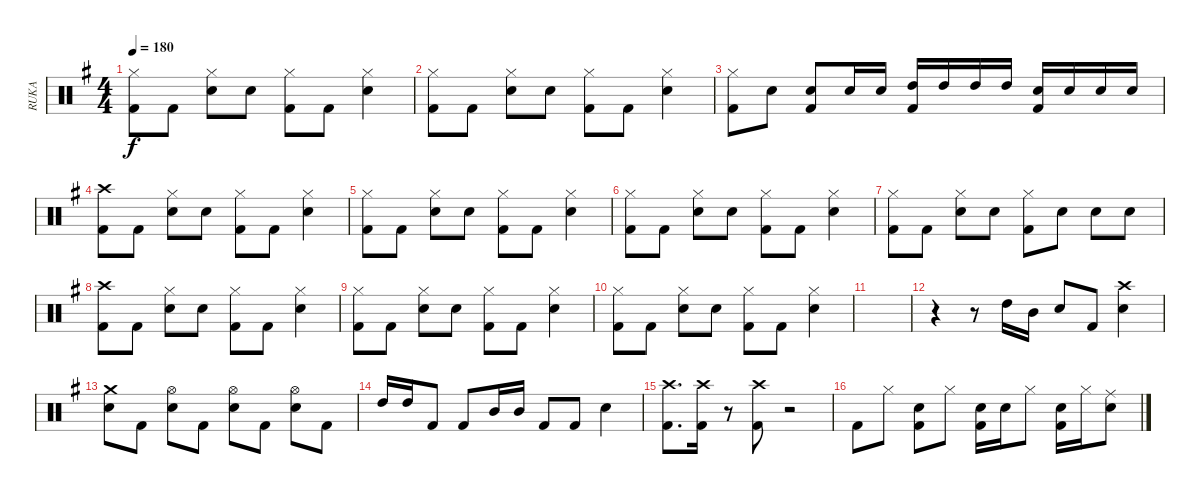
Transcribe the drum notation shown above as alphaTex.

\track ("RUKA" "RUKA") {instrument percussion}
\staff {score}
\articulation defaults
\ts (4 4)
\tempo 180
\clef neutral
\ks g
("Hi-Hat (closed)" "Kick (hit) 2").8{dy f} "Kick (hit) 2".8 ("Hi-Hat (closed)" "Snare (hit) 2").8 "Snare (hit) 2".8 ("Hi-Hat (closed)" "Kick (hit) 2").8 "Kick (hit) 2".8 ("Hi-Hat (closed)" "Snare (hit) 2").4 |
("Hi-Hat (closed)" "Kick (hit) 2").8 "Kick (hit) 2".8 ("Hi-Hat (closed)" "Snare (hit) 2").8 "Snare (hit) 2".8 ("Hi-Hat (closed)" "Kick (hit) 2").8 "Kick (hit) 2".8 ("Hi-Hat (closed)" "Snare (hit) 2").4 |
("Hi-Hat (closed)" "Kick (hit) 2").8 "Snare (hit) 2".8 ("Snare (hit) 2" "Kick (hit) 2").8 "Snare (hit) 2".16 "Snare (hit) 2".16 ("High Tom (hit)" "Kick (hit) 2").16 "High Tom (hit)".16 "High Tom (hit)".16 "High Tom (hit)".16 ("Snare (hit) 2" "Kick (hit) 2").16 "Snare (hit) 2".16 "Snare (hit) 2".16 "Snare (hit) 2".16 |
("Crash high (hit)" "Kick (hit) 2").8 "Kick (hit) 2".8 ("Hi-Hat (closed)" "Snare (hit) 2").8 "Snare (hit) 2".8 ("Hi-Hat (closed)" "Kick (hit) 2").8 "Kick (hit) 2".8 ("Hi-Hat (closed)" "Snare (hit) 2").4 |
("Hi-Hat (closed)" "Kick (hit) 2").8 "Kick (hit) 2".8 ("Hi-Hat (closed)" "Snare (hit) 2").8 "Snare (hit) 2".8 ("Hi-Hat (closed)" "Kick (hit) 2").8 "Kick (hit) 2".8 ("Hi-Hat (closed)" "Snare (hit) 2").4 |
("Hi-Hat (closed)" "Kick (hit) 2").8 "Kick (hit) 2".8 ("Hi-Hat (closed)" "Snare (hit) 2").8 "Snare (hit) 2".8 ("Hi-Hat (closed)" "Kick (hit) 2").8 "Kick (hit) 2".8 ("Hi-Hat (closed)" "Snare (hit) 2").4 |
("Hi-Hat (closed)" "Kick (hit) 2").8 "Kick (hit) 2".8 ("Hi-Hat (closed)" "Snare (hit) 2").8 "Snare (hit) 2".8 ("Hi-Hat (closed)" "Kick (hit) 2").8 "Snare (hit) 2".8 "Snare (hit) 2".8 "Snare (hit) 2".8 |
("Crash high (hit)" "Kick (hit) 2").8 "Kick (hit) 2".8 ("Hi-Hat (closed)" "Snare (hit) 2").8 "Snare (hit) 2".8 ("Hi-Hat (closed)" "Kick (hit) 2").8 "Kick (hit) 2".8 ("Hi-Hat (closed)" "Snare (hit) 2").4 |
("Hi-Hat (closed)" "Kick (hit) 2").8 "Kick (hit) 2".8 ("Hi-Hat (closed)" "Snare (hit) 2").8 "Snare (hit) 2".8 ("Hi-Hat (closed)" "Kick (hit) 2").8 "Kick (hit) 2".8 ("Hi-Hat (closed)" "Snare (hit) 2").4 |
("Hi-Hat (closed)" "Kick (hit) 2").8 "Kick (hit) 2".8 ("Hi-Hat (closed)" "Snare (hit) 2").8 "Snare (hit) 2".8 ("Hi-Hat (closed)" "Kick (hit) 2").8 "Kick (hit) 2".8 ("Hi-Hat (closed)" "Snare (hit) 2").4 |
|
r.4 r.8 "High Tom (hit)".16 "Mid Tom (hit)".16 "Snare (hit) 2".8 "Kick (hit) 2".8 ("Crash high (hit)" "Snare (hit) 2").4 |
("Crash medium (hit)" "Snare (hit) 2").8 "Kick (hit) 2".8 ("Hi-Hat (open)" "Snare (hit) 2").8 "Kick (hit) 2".8 ("Hi-Hat (open)" "Snare (hit) 2").8 "Kick (hit) 2".8 ("Hi-Hat (open)" "Snare (hit) 2").8 "Kick (hit) 2".8 |
"High Tom (hit)".16 "High Tom (hit)".16 "Kick (hit) 2".8 "Kick (hit) 2".8 "Mid Tom (hit)".16 "Mid Tom (hit)".16 "Kick (hit) 2".8 "Kick (hit) 2".8 "Snare (hit) 2".4 |
("Crash high (hit)" "Kick (hit) 2").8{d} ("Crash high (hit)" "Kick (hit) 2").16 r.8 ("Crash high (hit)" "Kick (hit) 2").8 r.2 |
"Kick (hit) 2".8 "Hi-Hat (closed)".8 ("Snare (hit) 2" "Kick (hit) 2").8 "Hi-Hat (closed)".8 ("Snare (hit) 2" "Kick (hit) 2").16 "Snare (hit) 2".16 "Hi-Hat (closed)".8 ("Snare (hit) 2" "Kick (hit) 2").16 "Hi-Hat (closed)".16 ("Ride (middle)" "Snare (hit) 2").8
